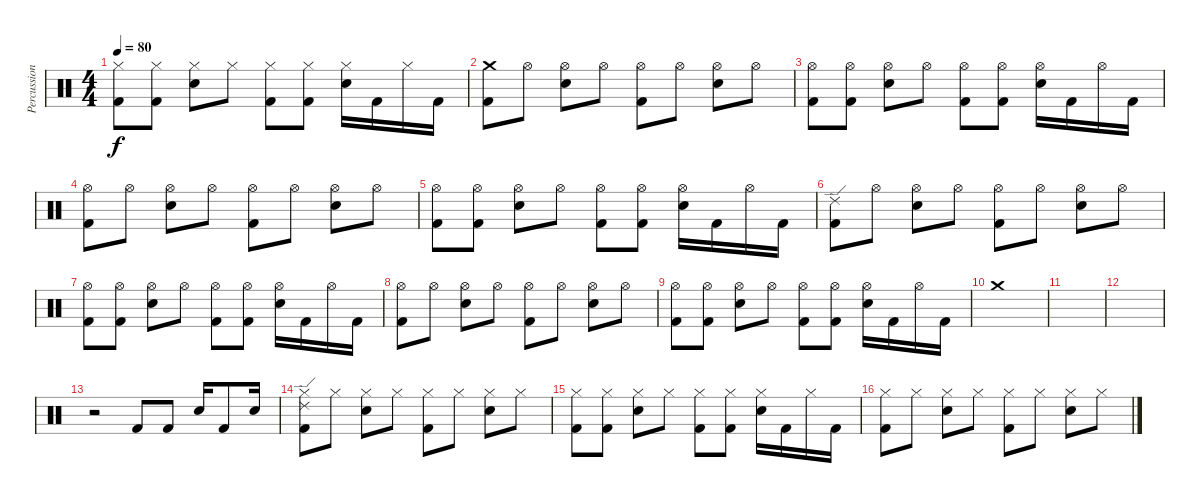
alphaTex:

\track ("Percussion" "Percussion") {instrument percussion}
\staff {score}
\articulation defaults
\ts (4 4)
\tempo 80
\clef neutral
\ks c
("Hi-Hat (closed)" "Kick (hit) 2").8{dy f} ("Hi-Hat (closed)" "Kick (hit) 2").8 ("Hi-Hat (closed)" "Electric Snare (hit)").8 "Hi-Hat (closed)".8 ("Hi-Hat (closed)" "Kick (hit) 2").8 ("Hi-Hat (closed)" "Kick (hit) 2").8 ("Hi-Hat (closed)" "Electric Snare (hit)").16 "Kick (hit) 2".16 "Hi-Hat (closed)".16 "Kick (hit) 2".16 |
("Kick (hit) 2" "Crash medium (hit)").8 "Hi-Hat (open)".8 ("Hi-Hat (open)" "Electric Snare (hit)").8 "Hi-Hat (open)".8 ("Hi-Hat (open)" "Kick (hit) 2").8 "Hi-Hat (open)".8 ("Hi-Hat (open)" "Electric Snare (hit)").8 "Hi-Hat (open)".8 |
("Hi-Hat (open)" "Kick (hit) 2").8 ("Hi-Hat (open)" "Kick (hit) 2").8 ("Hi-Hat (open)" "Electric Snare (hit)").8 "Hi-Hat (open)".8 ("Hi-Hat (open)" "Kick (hit) 2").8 ("Hi-Hat (open)" "Kick (hit) 2").8 ("Hi-Hat (open)" "Electric Snare (hit)").16 "Kick (hit) 2".16 "Hi-Hat (open)".16 "Kick (hit) 2".16 |
("Hi-Hat (open)" "Kick (hit) 2").8 "Hi-Hat (open)".8 ("Hi-Hat (open)" "Electric Snare (hit)").8 "Hi-Hat (open)".8 ("Hi-Hat (open)" "Kick (hit) 2").8 "Hi-Hat (open)".8 ("Hi-Hat (open)" "Electric Snare (hit)").8 "Hi-Hat (open)".8 |
("Hi-Hat (open)" "Kick (hit) 2").8 ("Hi-Hat (open)" "Kick (hit) 2").8 ("Hi-Hat (open)" "Electric Snare (hit)").8 "Hi-Hat (open)".8 ("Hi-Hat (open)" "Kick (hit) 2").8 ("Hi-Hat (open)" "Kick (hit) 2").8 ("Hi-Hat (open)" "Electric Snare (hit)").16 "Kick (hit) 2".16 "Hi-Hat (open)".16 "Kick (hit) 2".16 |
("Kick (hit) 2" "Ride (edge) 2").8 "Hi-Hat (open)".8 ("Hi-Hat (open)" "Electric Snare (hit)").8 "Hi-Hat (open)".8 ("Hi-Hat (open)" "Kick (hit) 2").8 "Hi-Hat (open)".8 ("Hi-Hat (open)" "Electric Snare (hit)").8 "Hi-Hat (open)".8 |
("Hi-Hat (open)" "Kick (hit) 2").8 ("Hi-Hat (open)" "Kick (hit) 2").8 ("Hi-Hat (open)" "Electric Snare (hit)").8 "Hi-Hat (open)".8 ("Hi-Hat (open)" "Kick (hit) 2").8 ("Hi-Hat (open)" "Kick (hit) 2").8 ("Hi-Hat (open)" "Electric Snare (hit)").16 "Kick (hit) 2".16 "Hi-Hat (open)".16 "Kick (hit) 2".16 |
("Hi-Hat (open)" "Kick (hit) 2").8 "Hi-Hat (open)".8 ("Hi-Hat (open)" "Electric Snare (hit)").8 "Hi-Hat (open)".8 ("Hi-Hat (open)" "Kick (hit) 2").8 "Hi-Hat (open)".8 ("Hi-Hat (open)" "Electric Snare (hit)").8 "Hi-Hat (open)".8 |
("Hi-Hat (open)" "Kick (hit) 2").8 ("Hi-Hat (open)" "Kick (hit) 2").8 ("Hi-Hat (open)" "Electric Snare (hit)").8 "Hi-Hat (open)".8 ("Hi-Hat (open)" "Kick (hit) 2").8 ("Hi-Hat (open)" "Kick (hit) 2").8 ("Hi-Hat (open)" "Electric Snare (hit)").16 "Kick (hit) 2".16 "Hi-Hat (open)".16 "Kick (hit) 2".16 |
"Crash medium (hit)".1 |
|
|
r.2 "Kick (hit) 2".8 "Kick (hit) 2".8 "Electric Snare (hit)".16 "Kick (hit) 2".8 "Electric Snare (hit)".16 |
("Hi-Hat (closed)" "Kick (hit) 2" "Ride (edge) 2").8 "Hi-Hat (closed)".8 ("Hi-Hat (closed)" "Electric Snare (hit)").8 "Hi-Hat (closed)".8 ("Hi-Hat (closed)" "Kick (hit) 2").8 "Hi-Hat (closed)".8 ("Hi-Hat (closed)" "Electric Snare (hit)").8 "Hi-Hat (closed)".8 |
("Hi-Hat (closed)" "Kick (hit) 2").8 ("Hi-Hat (closed)" "Kick (hit) 2").8 ("Hi-Hat (closed)" "Electric Snare (hit)").8 "Hi-Hat (closed)".8 ("Hi-Hat (closed)" "Kick (hit) 2").8 ("Hi-Hat (closed)" "Kick (hit) 2").8 ("Hi-Hat (closed)" "Electric Snare (hit)").16 "Kick (hit) 2".16 "Hi-Hat (closed)".16 "Kick (hit) 2".16 |
("Hi-Hat (closed)" "Kick (hit) 2").8 "Hi-Hat (closed)".8 ("Hi-Hat (closed)" "Electric Snare (hit)").8 "Hi-Hat (closed)".8 ("Hi-Hat (closed)" "Kick (hit) 2").8 "Hi-Hat (closed)".8 ("Hi-Hat (closed)" "Electric Snare (hit)").8 "Hi-Hat (closed)".8
